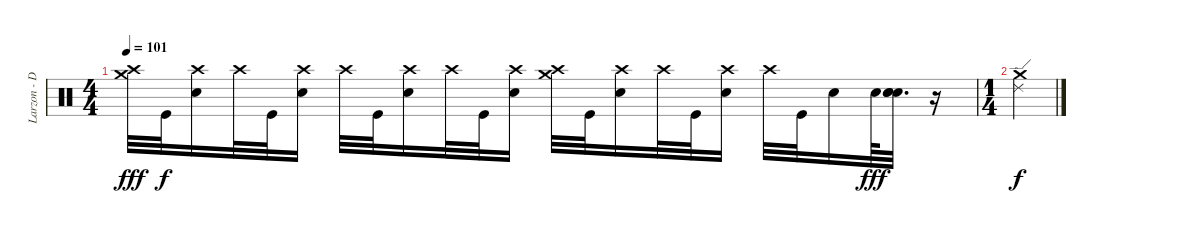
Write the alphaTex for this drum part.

\track ("Larzon - Drums" "Larzon - D") {instrument percussion}
\staff {score}
\articulation defaults
\ts (4 4)
\tempo 101
\clef neutral
\ks c
("Crash medium (hit)" "Crash high (hit)").32{dy fff} "Kick (hit)".32{dy f} ("Electric Snare (hit)" "Crash high (hit)").16 "Crash high (hit)".32 "Kick (hit)".32 ("Electric Snare (hit)" "Crash high (hit)").16 "Crash high (hit)".32 "Kick (hit)".32 ("Electric Snare (hit)" "Crash high (hit)").16 "Crash high (hit)".32 "Kick (hit)".32 ("Electric Snare (hit)" "Crash high (hit)").16 ("Crash medium (hit)" "Crash high (hit)").32 "Kick (hit)".32 ("Electric Snare (hit)" "Crash high (hit)").16 "Crash high (hit)".32 "Kick (hit)".32 ("Electric Snare (hit)" "Crash high (hit)").16 "Crash high (hit)".32 "Kick (hit)".32 "Electric Snare (hit)".16 "Electric Snare (hit)".64{dy fff} ("Electric Snare (hit)" "Electric Snare (hit)" "Electric Snare (hit)").32{d} r.16 |
\ts (1 4)
("Crash medium (hit)" "Ride (edge) 2").4{dy f}
